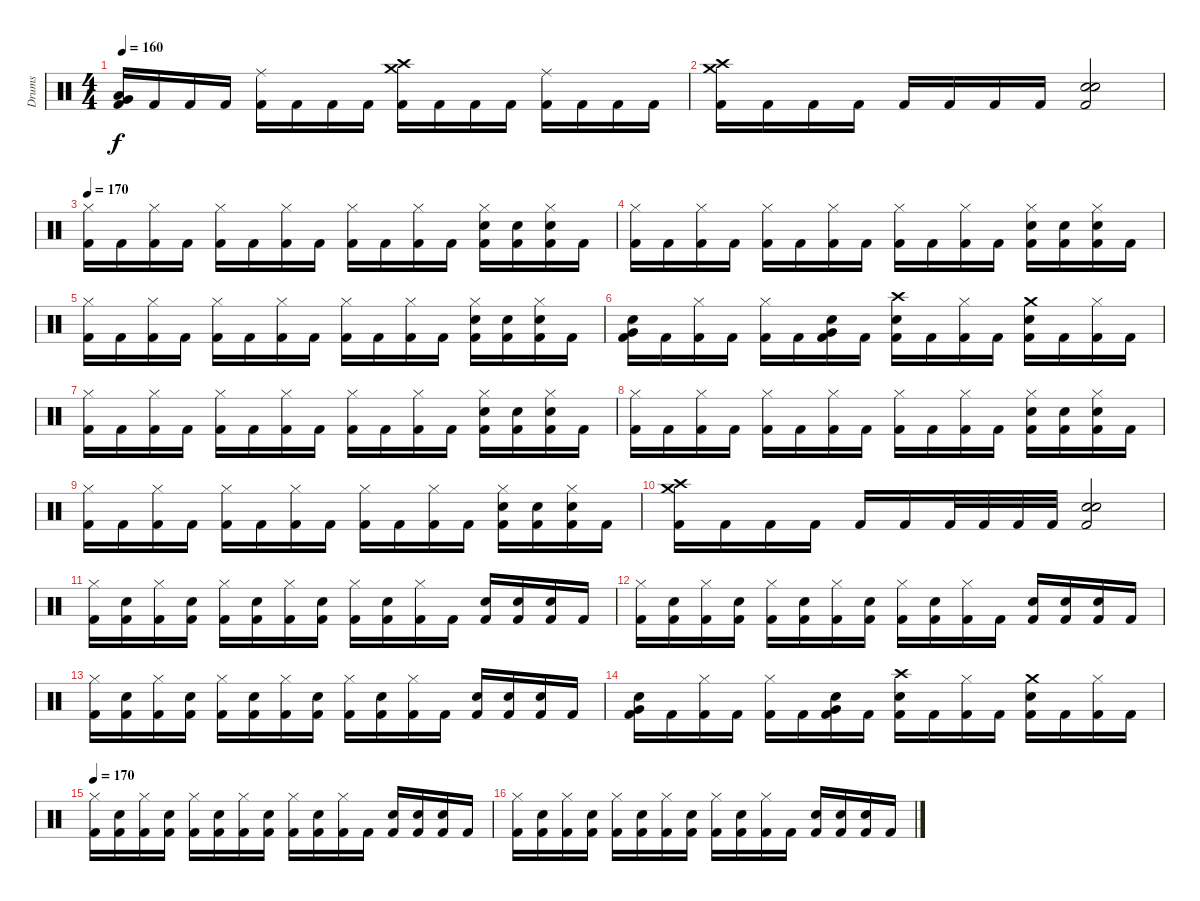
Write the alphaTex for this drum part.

\track ("Drums" "Drums") {instrument percussion}
\staff {score}
\articulation defaults
\ts (4 4)
\tempo 160
\clef neutral
\ks c
("Kick (hit) 2" "Very Low Tom (hit)" "Low Tom (hit)").16{dy f} "Kick (hit) 2".16 "Kick (hit) 2".16 "Kick (hit) 2".16 ("Kick (hit) 2" "Ride (middle)").16 "Kick (hit) 2".16 "Kick (hit) 2".16 "Kick (hit) 2".16 ("Kick (hit) 2" "Crash high (hit)" "Crash medium (hit)").16 "Kick (hit) 2".16 "Kick (hit) 2".16 "Kick (hit) 2".16 ("Kick (hit) 2" "Ride (middle)").16 "Kick (hit) 2".16 "Kick (hit) 2".16 "Kick (hit) 2".16 |
("Kick (hit) 2" "Crash high (hit)" "Crash medium (hit)").16 "Kick (hit) 2".16 "Kick (hit) 2".16 "Kick (hit) 2".16 "Kick (hit) 2".16 "Kick (hit) 2".16 "Kick (hit) 2".16 "Kick (hit) 2".16 ("Kick (hit) 2" "Snare (hit) 2" "Snare (hit) 2").2 |
\tempo 165
\tempo 170
("Kick (hit) 2" "Hi-Hat (closed)").16 "Kick (hit) 2".16 ("Kick (hit) 2" "Hi-Hat (closed)").16 "Kick (hit) 2".16 ("Kick (hit) 2" "Hi-Hat (closed)").16 "Kick (hit) 2".16 ("Kick (hit) 2" "Hi-Hat (closed)").16 "Kick (hit) 2".16 ("Kick (hit) 2" "Hi-Hat (closed)").16 "Kick (hit) 2".16 ("Kick (hit) 2" "Hi-Hat (closed)").16 "Kick (hit) 2".16 ("Kick (hit) 2" "Hi-Hat (closed)" "Snare (hit) 2").16 ("Kick (hit) 2" "Snare (hit) 2").16 ("Kick (hit) 2" "Hi-Hat (closed)" "Snare (hit) 2").16 "Kick (hit) 2".16 |
("Kick (hit) 2" "Hi-Hat (closed)").16 "Kick (hit) 2".16 ("Kick (hit) 2" "Hi-Hat (closed)").16 "Kick (hit) 2".16 ("Kick (hit) 2" "Hi-Hat (closed)").16 "Kick (hit) 2".16 ("Kick (hit) 2" "Hi-Hat (closed)").16 "Kick (hit) 2".16 ("Kick (hit) 2" "Hi-Hat (closed)").16 "Kick (hit) 2".16 ("Kick (hit) 2" "Hi-Hat (closed)").16 "Kick (hit) 2".16 ("Kick (hit) 2" "Hi-Hat (closed)" "Snare (hit) 2").16 ("Kick (hit) 2" "Snare (hit) 2").16 ("Kick (hit) 2" "Hi-Hat (closed)" "Snare (hit) 2").16 "Kick (hit) 2".16 |
("Kick (hit) 2" "Hi-Hat (closed)").16 "Kick (hit) 2".16 ("Kick (hit) 2" "Hi-Hat (closed)").16 "Kick (hit) 2".16 ("Kick (hit) 2" "Hi-Hat (closed)").16 "Kick (hit) 2".16 ("Kick (hit) 2" "Hi-Hat (closed)").16 "Kick (hit) 2".16 ("Kick (hit) 2" "Hi-Hat (closed)").16 "Kick (hit) 2".16 ("Kick (hit) 2" "Hi-Hat (closed)").16 "Kick (hit) 2".16 ("Kick (hit) 2" "Hi-Hat (closed)" "Snare (hit) 2").16 ("Kick (hit) 2" "Snare (hit) 2").16 ("Kick (hit) 2" "Hi-Hat (closed)" "Snare (hit) 2").16 "Kick (hit) 2".16 |
("Kick (hit) 2" "Snare (hit) 2" "Very Low Tom (hit)").16 "Kick (hit) 2".16 ("Kick (hit) 2" "Hi-Hat (closed)").16 "Kick (hit) 2".16 ("Kick (hit) 2" "Hi-Hat (closed)").16 "Kick (hit) 2".16 ("Kick (hit) 2" "Snare (hit) 2" "Very Low Tom (hit)").16 "Kick (hit) 2".16 ("Kick (hit) 2" "Snare (hit) 2" "Crash high (hit)").16 "Kick (hit) 2".16 ("Kick (hit) 2" "Hi-Hat (closed)").16 "Kick (hit) 2".16 ("Kick (hit) 2" "Snare (hit) 2" "Crash medium (hit)").16 "Kick (hit) 2".16 ("Kick (hit) 2" "Hi-Hat (closed)").16 "Kick (hit) 2".16 |
("Kick (hit) 2" "Hi-Hat (closed)").16 "Kick (hit) 2".16 ("Kick (hit) 2" "Hi-Hat (closed)").16 "Kick (hit) 2".16 ("Kick (hit) 2" "Hi-Hat (closed)").16 "Kick (hit) 2".16 ("Kick (hit) 2" "Hi-Hat (closed)").16 "Kick (hit) 2".16 ("Kick (hit) 2" "Hi-Hat (closed)").16 "Kick (hit) 2".16 ("Kick (hit) 2" "Hi-Hat (closed)").16 "Kick (hit) 2".16 ("Kick (hit) 2" "Hi-Hat (closed)" "Snare (hit) 2").16 ("Kick (hit) 2" "Snare (hit) 2").16 ("Kick (hit) 2" "Hi-Hat (closed)" "Snare (hit) 2").16 "Kick (hit) 2".16 |
("Kick (hit) 2" "Hi-Hat (closed)").16 "Kick (hit) 2".16 ("Kick (hit) 2" "Hi-Hat (closed)").16 "Kick (hit) 2".16 ("Kick (hit) 2" "Hi-Hat (closed)").16 "Kick (hit) 2".16 ("Kick (hit) 2" "Hi-Hat (closed)").16 "Kick (hit) 2".16 ("Kick (hit) 2" "Hi-Hat (closed)").16 "Kick (hit) 2".16 ("Kick (hit) 2" "Hi-Hat (closed)").16 "Kick (hit) 2".16 ("Kick (hit) 2" "Hi-Hat (closed)" "Snare (hit) 2").16 ("Kick (hit) 2" "Snare (hit) 2").16 ("Kick (hit) 2" "Hi-Hat (closed)" "Snare (hit) 2").16 "Kick (hit) 2".16 |
("Kick (hit) 2" "Hi-Hat (closed)").16 "Kick (hit) 2".16 ("Kick (hit) 2" "Hi-Hat (closed)").16 "Kick (hit) 2".16 ("Kick (hit) 2" "Hi-Hat (closed)").16 "Kick (hit) 2".16 ("Kick (hit) 2" "Hi-Hat (closed)").16 "Kick (hit) 2".16 ("Kick (hit) 2" "Hi-Hat (closed)").16 "Kick (hit) 2".16 ("Kick (hit) 2" "Hi-Hat (closed)").16 "Kick (hit) 2".16 ("Kick (hit) 2" "Hi-Hat (closed)" "Snare (hit) 2").16 ("Kick (hit) 2" "Snare (hit) 2").16 ("Kick (hit) 2" "Hi-Hat (closed)" "Snare (hit) 2").16 "Kick (hit) 2".16 |
("Kick (hit) 2" "Crash high (hit)" "Crash medium (hit)").16 "Kick (hit) 2".16 "Kick (hit) 2".16 "Kick (hit) 2".16 "Kick (hit) 2".16 "Kick (hit) 2".16 "Kick (hit) 2".32 "Kick (hit) 2".32 "Kick (hit) 2".32 "Kick (hit) 2".32 ("Kick (hit) 2" "Snare (hit) 2" "Snare (hit) 2").2 |
("Kick (hit) 2" "Hi-Hat (closed)").16 ("Kick (hit) 2" "Snare (hit) 2").16 ("Kick (hit) 2" "Hi-Hat (closed)").16 ("Kick (hit) 2" "Snare (hit) 2").16 ("Kick (hit) 2" "Hi-Hat (closed)").16 ("Kick (hit) 2" "Snare (hit) 2").16 ("Kick (hit) 2" "Hi-Hat (closed)").16 ("Kick (hit) 2" "Snare (hit) 2").16 ("Kick (hit) 2" "Hi-Hat (closed)").16 ("Kick (hit) 2" "Snare (hit) 2").16 ("Kick (hit) 2" "Hi-Hat (closed)").16 "Kick (hit) 2".16 ("Kick (hit) 2" "Snare (hit) 2").16 ("Kick (hit) 2" "Snare (hit) 2").16 ("Kick (hit) 2" "Snare (hit) 2").16 "Kick (hit) 2".16 |
("Kick (hit) 2" "Hi-Hat (closed)").16 ("Kick (hit) 2" "Snare (hit) 2").16 ("Kick (hit) 2" "Hi-Hat (closed)").16 ("Kick (hit) 2" "Snare (hit) 2").16 ("Kick (hit) 2" "Hi-Hat (closed)").16 ("Kick (hit) 2" "Snare (hit) 2").16 ("Kick (hit) 2" "Hi-Hat (closed)").16 ("Kick (hit) 2" "Snare (hit) 2").16 ("Kick (hit) 2" "Hi-Hat (closed)").16 ("Kick (hit) 2" "Snare (hit) 2").16 ("Kick (hit) 2" "Hi-Hat (closed)").16 "Kick (hit) 2".16 ("Kick (hit) 2" "Snare (hit) 2").16 ("Kick (hit) 2" "Snare (hit) 2").16 ("Kick (hit) 2" "Snare (hit) 2").16 "Kick (hit) 2".16 |
("Kick (hit) 2" "Hi-Hat (closed)").16 ("Kick (hit) 2" "Snare (hit) 2").16 ("Kick (hit) 2" "Hi-Hat (closed)").16 ("Kick (hit) 2" "Snare (hit) 2").16 ("Kick (hit) 2" "Hi-Hat (closed)").16 ("Kick (hit) 2" "Snare (hit) 2").16 ("Kick (hit) 2" "Hi-Hat (closed)").16 ("Kick (hit) 2" "Snare (hit) 2").16 ("Kick (hit) 2" "Hi-Hat (closed)").16 ("Kick (hit) 2" "Snare (hit) 2").16 ("Kick (hit) 2" "Hi-Hat (closed)").16 "Kick (hit) 2".16 ("Kick (hit) 2" "Snare (hit) 2").16 ("Kick (hit) 2" "Snare (hit) 2").16 ("Kick (hit) 2" "Snare (hit) 2").16 "Kick (hit) 2".16 |
("Kick (hit) 2" "Snare (hit) 2" "Very Low Tom (hit)").16 "Kick (hit) 2".16 ("Kick (hit) 2" "Hi-Hat (closed)").16 "Kick (hit) 2".16 ("Kick (hit) 2" "Hi-Hat (closed)").16 "Kick (hit) 2".16 ("Kick (hit) 2" "Snare (hit) 2" "Very Low Tom (hit)").16 "Kick (hit) 2".16 ("Kick (hit) 2" "Snare (hit) 2" "Crash high (hit)").16 "Kick (hit) 2".16 ("Kick (hit) 2" "Hi-Hat (closed)").16 "Kick (hit) 2".16 ("Kick (hit) 2" "Snare (hit) 2" "Crash medium (hit)").16 "Kick (hit) 2".16 ("Kick (hit) 2" "Hi-Hat (closed)").16 "Kick (hit) 2".16 |
\tempo 170
("Kick (hit) 2" "Hi-Hat (closed)").16 ("Kick (hit) 2" "Snare (hit) 2").16 ("Kick (hit) 2" "Hi-Hat (closed)").16 ("Kick (hit) 2" "Snare (hit) 2").16 ("Kick (hit) 2" "Hi-Hat (closed)").16 ("Kick (hit) 2" "Snare (hit) 2").16 ("Kick (hit) 2" "Hi-Hat (closed)").16 ("Kick (hit) 2" "Snare (hit) 2").16 ("Kick (hit) 2" "Hi-Hat (closed)").16 ("Kick (hit) 2" "Snare (hit) 2").16 ("Kick (hit) 2" "Hi-Hat (closed)").16 "Kick (hit) 2".16 ("Kick (hit) 2" "Snare (hit) 2").16 ("Kick (hit) 2" "Snare (hit) 2").16 ("Kick (hit) 2" "Snare (hit) 2").16 "Kick (hit) 2".16 |
("Kick (hit) 2" "Hi-Hat (closed)").16 ("Kick (hit) 2" "Snare (hit) 2").16 ("Kick (hit) 2" "Hi-Hat (closed)").16 ("Kick (hit) 2" "Snare (hit) 2").16 ("Kick (hit) 2" "Hi-Hat (closed)").16 ("Kick (hit) 2" "Snare (hit) 2").16 ("Kick (hit) 2" "Hi-Hat (closed)").16 ("Kick (hit) 2" "Snare (hit) 2").16 ("Kick (hit) 2" "Hi-Hat (closed)").16 ("Kick (hit) 2" "Snare (hit) 2").16 ("Kick (hit) 2" "Hi-Hat (closed)").16 "Kick (hit) 2".16 ("Kick (hit) 2" "Snare (hit) 2").16 ("Kick (hit) 2" "Snare (hit) 2").16 ("Kick (hit) 2" "Snare (hit) 2").16 "Kick (hit) 2".16
